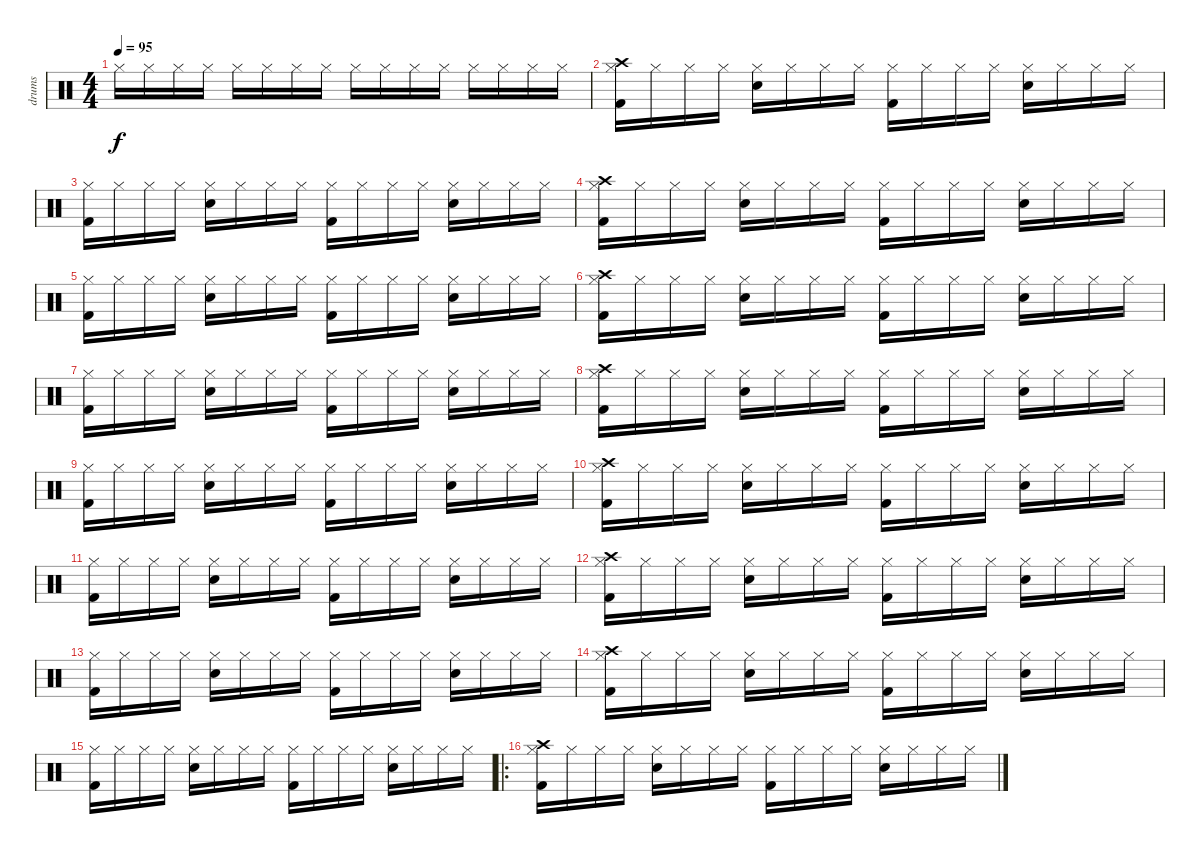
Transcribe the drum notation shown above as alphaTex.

\track ("drums" "drums") {instrument percussion}
\staff {score}
\articulation defaults
\ts (4 4)
\tempo 95
\clef neutral
\ks c "Hi-Hat (closed)".16{dy f} "Hi-Hat (closed)".16 "Hi-Hat (closed)".16 "Hi-Hat (closed)".16 "Hi-Hat (closed)".16 "Hi-Hat (closed)".16 "Hi-Hat (closed)".16 "Hi-Hat (closed)".16 "Hi-Hat (closed)".16 "Hi-Hat (closed)".16 "Hi-Hat (closed)".16 "Hi-Hat (closed)".16 "Hi-Hat (closed)".16 "Hi-Hat (closed)".16 "Hi-Hat (closed)".16 "Hi-Hat (closed)".16
|
("Crash high (hit)" "Kick (hit) 2" "Hi-Hat (closed)").16 "Hi-Hat (closed)".16 "Hi-Hat (closed)".16 "Hi-Hat (closed)".16 ("Snare (hit) 2" "Hi-Hat (closed)").16 "Hi-Hat (closed)".16 "Hi-Hat (closed)".16 "Hi-Hat (closed)".16 ("Kick (hit) 2" "Hi-Hat (closed)").16 "Hi-Hat (closed)".16 "Hi-Hat (closed)".16 "Hi-Hat (closed)".16 ("Snare (hit) 2" "Hi-Hat (closed)").16 "Hi-Hat (closed)".16 "Hi-Hat (closed)".16 "Hi-Hat (closed)".16 |
("Kick (hit) 2" "Hi-Hat (closed)").16 "Hi-Hat (closed)".16 "Hi-Hat (closed)".16 "Hi-Hat (closed)".16 ("Snare (hit) 2" "Hi-Hat (closed)").16 "Hi-Hat (closed)".16 "Hi-Hat (closed)".16 "Hi-Hat (closed)".16 ("Kick (hit) 2" "Hi-Hat (closed)").16 "Hi-Hat (closed)".16 "Hi-Hat (closed)".16 "Hi-Hat (closed)".16 ("Snare (hit) 2" "Hi-Hat (closed)").16 "Hi-Hat (closed)".16 "Hi-Hat (closed)".16 "Hi-Hat (closed)".16 |
("Crash high (hit)" "Kick (hit) 2" "Hi-Hat (closed)").16 "Hi-Hat (closed)".16 "Hi-Hat (closed)".16 "Hi-Hat (closed)".16 ("Snare (hit) 2" "Hi-Hat (closed)").16 "Hi-Hat (closed)".16 "Hi-Hat (closed)".16 "Hi-Hat (closed)".16 ("Kick (hit) 2" "Hi-Hat (closed)").16 "Hi-Hat (closed)".16 "Hi-Hat (closed)".16 "Hi-Hat (closed)".16 ("Snare (hit) 2" "Hi-Hat (closed)").16 "Hi-Hat (closed)".16 "Hi-Hat (closed)".16 "Hi-Hat (closed)".16 |
("Kick (hit) 2" "Hi-Hat (closed)").16 "Hi-Hat (closed)".16 "Hi-Hat (closed)".16 "Hi-Hat (closed)".16 ("Snare (hit) 2" "Hi-Hat (closed)").16 "Hi-Hat (closed)".16 "Hi-Hat (closed)".16 "Hi-Hat (closed)".16 ("Kick (hit) 2" "Hi-Hat (closed)").16 "Hi-Hat (closed)".16 "Hi-Hat (closed)".16 "Hi-Hat (closed)".16 ("Snare (hit) 2" "Hi-Hat (closed)").16 "Hi-Hat (closed)".16 "Hi-Hat (closed)".16 "Hi-Hat (closed)".16 |
("Crash high (hit)" "Kick (hit) 2" "Hi-Hat (closed)").16 "Hi-Hat (closed)".16 "Hi-Hat (closed)".16 "Hi-Hat (closed)".16 ("Snare (hit) 2" "Hi-Hat (closed)").16 "Hi-Hat (closed)".16 "Hi-Hat (closed)".16 "Hi-Hat (closed)".16 ("Kick (hit) 2" "Hi-Hat (closed)").16 "Hi-Hat (closed)".16 "Hi-Hat (closed)".16 "Hi-Hat (closed)".16 ("Snare (hit) 2" "Hi-Hat (closed)").16 "Hi-Hat (closed)".16 "Hi-Hat (closed)".16 "Hi-Hat (closed)".16 |
("Kick (hit) 2" "Hi-Hat (closed)").16 "Hi-Hat (closed)".16 "Hi-Hat (closed)".16 "Hi-Hat (closed)".16 ("Snare (hit) 2" "Hi-Hat (closed)").16 "Hi-Hat (closed)".16 "Hi-Hat (closed)".16 "Hi-Hat (closed)".16 ("Kick (hit) 2" "Hi-Hat (closed)").16 "Hi-Hat (closed)".16 "Hi-Hat (closed)".16 "Hi-Hat (closed)".16 ("Snare (hit) 2" "Hi-Hat (closed)").16 "Hi-Hat (closed)".16 "Hi-Hat (closed)".16 "Hi-Hat (closed)".16 |
("Crash high (hit)" "Kick (hit) 2" "Hi-Hat (closed)").16 "Hi-Hat (closed)".16 "Hi-Hat (closed)".16 "Hi-Hat (closed)".16 ("Snare (hit) 2" "Hi-Hat (closed)").16 "Hi-Hat (closed)".16 "Hi-Hat (closed)".16 "Hi-Hat (closed)".16 ("Kick (hit) 2" "Hi-Hat (closed)").16 "Hi-Hat (closed)".16 "Hi-Hat (closed)".16 "Hi-Hat (closed)".16 ("Snare (hit) 2" "Hi-Hat (closed)").16 "Hi-Hat (closed)".16 "Hi-Hat (closed)".16 "Hi-Hat (closed)".16 |
("Kick (hit) 2" "Hi-Hat (closed)").16 "Hi-Hat (closed)".16 "Hi-Hat (closed)".16 "Hi-Hat (closed)".16 ("Snare (hit) 2" "Hi-Hat (closed)").16 "Hi-Hat (closed)".16 "Hi-Hat (closed)".16 "Hi-Hat (closed)".16 ("Kick (hit) 2" "Hi-Hat (closed)").16 "Hi-Hat (closed)".16 "Hi-Hat (closed)".16 "Hi-Hat (closed)".16 ("Snare (hit) 2" "Hi-Hat (closed)").16 "Hi-Hat (closed)".16 "Hi-Hat (closed)".16 "Hi-Hat (closed)".16 |
("Crash high (hit)" "Kick (hit) 2" "Hi-Hat (closed)").16 "Hi-Hat (closed)".16 "Hi-Hat (closed)".16 "Hi-Hat (closed)".16 ("Snare (hit) 2" "Hi-Hat (closed)").16 "Hi-Hat (closed)".16 "Hi-Hat (closed)".16 "Hi-Hat (closed)".16 ("Kick (hit) 2" "Hi-Hat (closed)").16 "Hi-Hat (closed)".16 "Hi-Hat (closed)".16 "Hi-Hat (closed)".16 ("Snare (hit) 2" "Hi-Hat (closed)").16 "Hi-Hat (closed)".16 "Hi-Hat (closed)".16 "Hi-Hat (closed)".16 |
("Kick (hit) 2" "Hi-Hat (closed)").16 "Hi-Hat (closed)".16 "Hi-Hat (closed)".16 "Hi-Hat (closed)".16 ("Snare (hit) 2" "Hi-Hat (closed)").16 "Hi-Hat (closed)".16 "Hi-Hat (closed)".16 "Hi-Hat (closed)".16 ("Kick (hit) 2" "Hi-Hat (closed)").16 "Hi-Hat (closed)".16 "Hi-Hat (closed)".16 "Hi-Hat (closed)".16 ("Snare (hit) 2" "Hi-Hat (closed)").16 "Hi-Hat (closed)".16 "Hi-Hat (closed)".16 "Hi-Hat (closed)".16 |
("Crash high (hit)" "Kick (hit) 2" "Hi-Hat (closed)").16 "Hi-Hat (closed)".16 "Hi-Hat (closed)".16 "Hi-Hat (closed)".16 ("Snare (hit) 2" "Hi-Hat (closed)").16 "Hi-Hat (closed)".16 "Hi-Hat (closed)".16 "Hi-Hat (closed)".16 ("Kick (hit) 2" "Hi-Hat (closed)").16 "Hi-Hat (closed)".16 "Hi-Hat (closed)".16 "Hi-Hat (closed)".16 ("Snare (hit) 2" "Hi-Hat (closed)").16 "Hi-Hat (closed)".16 "Hi-Hat (closed)".16 "Hi-Hat (closed)".16 |
("Kick (hit) 2" "Hi-Hat (closed)").16 "Hi-Hat (closed)".16 "Hi-Hat (closed)".16 "Hi-Hat (closed)".16 ("Snare (hit) 2" "Hi-Hat (closed)").16 "Hi-Hat (closed)".16 "Hi-Hat (closed)".16 "Hi-Hat (closed)".16 ("Kick (hit) 2" "Hi-Hat (closed)").16 "Hi-Hat (closed)".16 "Hi-Hat (closed)".16 "Hi-Hat (closed)".16 ("Snare (hit) 2" "Hi-Hat (closed)").16 "Hi-Hat (closed)".16 "Hi-Hat (closed)".16 "Hi-Hat (closed)".16 |
("Crash high (hit)" "Kick (hit) 2" "Hi-Hat (closed)").16 "Hi-Hat (closed)".16 "Hi-Hat (closed)".16 "Hi-Hat (closed)".16 ("Snare (hit) 2" "Hi-Hat (closed)").16 "Hi-Hat (closed)".16 "Hi-Hat (closed)".16 "Hi-Hat (closed)".16 ("Kick (hit) 2" "Hi-Hat (closed)").16 "Hi-Hat (closed)".16 "Hi-Hat (closed)".16 "Hi-Hat (closed)".16 ("Snare (hit) 2" "Hi-Hat (closed)").16 "Hi-Hat (closed)".16 "Hi-Hat (closed)".16 "Hi-Hat (closed)".16 |
("Kick (hit) 2" "Hi-Hat (closed)").16 "Hi-Hat (closed)".16 "Hi-Hat (closed)".16 "Hi-Hat (closed)".16 ("Snare (hit) 2" "Hi-Hat (closed)").16 "Hi-Hat (closed)".16 "Hi-Hat (closed)".16 "Hi-Hat (closed)".16 ("Kick (hit) 2" "Hi-Hat (closed)").16 "Hi-Hat (closed)".16 "Hi-Hat (closed)".16 "Hi-Hat (closed)".16 ("Snare (hit) 2" "Hi-Hat (closed)").16 "Hi-Hat (closed)".16 "Hi-Hat (closed)".16 "Hi-Hat (closed)".16 |
\ro
("Crash high (hit)" "Kick (hit) 2" "Hi-Hat (closed)").16 "Hi-Hat (closed)".16 "Hi-Hat (closed)".16 "Hi-Hat (closed)".16 ("Snare (hit) 2" "Hi-Hat (closed)").16 "Hi-Hat (closed)".16 "Hi-Hat (closed)".16 "Hi-Hat (closed)".16 ("Kick (hit) 2" "Hi-Hat (closed)").16 "Hi-Hat (closed)".16 "Hi-Hat (closed)".16 "Hi-Hat (closed)".16 ("Snare (hit) 2" "Hi-Hat (closed)").16 "Hi-Hat (closed)".16 "Hi-Hat (closed)".16 "Hi-Hat (closed)".16
